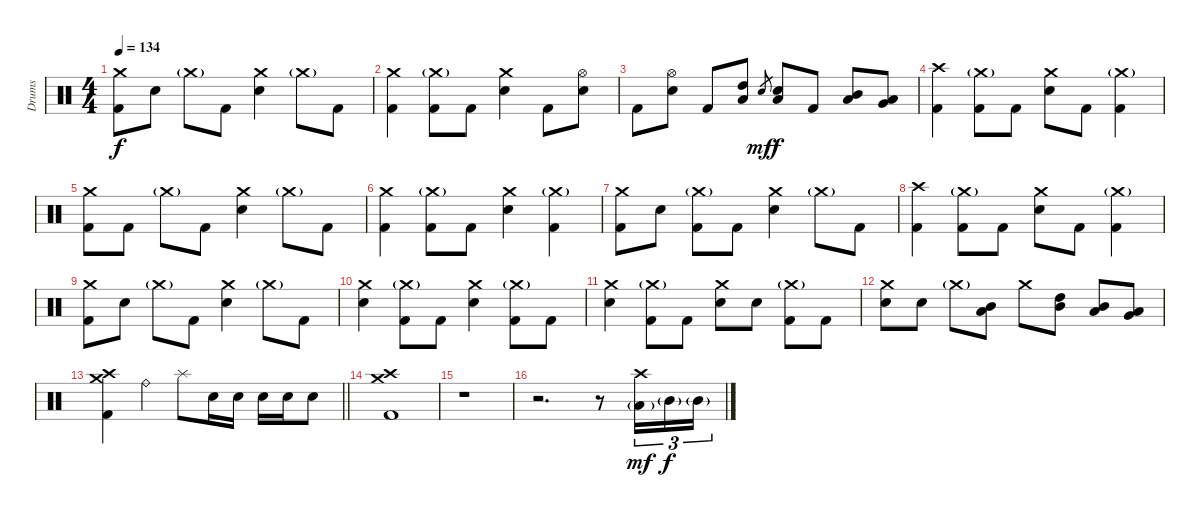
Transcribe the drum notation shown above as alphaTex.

\track ("Drums" "Drums") {instrument percussion}
\staff {score}
\articulation defaults
\ts (4 4)
\tempo 134
\clef neutral
\ks c
("Crash medium (hit)" "Kick (hit) 2").8{dy f} "Snare (hit) 2".8 "Crash medium (hit)"{g}.8 "Kick (hit) 2".8 ("Crash medium (hit)" "Snare (hit) 2").4 "Crash medium (hit)"{g}.8 "Kick (hit) 2".8 |
("Crash medium (hit)" "Kick (hit) 2").4 ("Crash medium (hit)"{g} "Kick (hit) 2").8 "Kick (hit) 2".8 ("Crash medium (hit)" "Snare (hit) 2").4 "Kick (hit) 2".8 ("Hi-Hat (open)" "Snare (hit) 2").8 |
"Kick (hit) 2".8 ("Hi-Hat (open)" "Snare (hit) 2").8 "Kick (hit) 2".8 ("High Tom (hit)" "Low Tom (hit)").8 "Snare (hit)".8{gr dy mf} ("Low Tom (hit)" "Snare (hit) 2").8{dy f} "Kick (hit) 2".8 ("Mid Tom (hit)" "Low Tom (hit)").8 ("Low Tom (hit)" "Very Low Tom (hit)").8 |
("Crash high (hit)" "Kick (hit) 2").4 ("Crash medium (hit)"{g} "Kick (hit) 2").8 "Kick (hit) 2".8 ("Crash medium (hit)" "Snare (hit) 2").8 "Kick (hit) 2".8 ("Crash medium (hit)"{g} "Kick (hit) 2").4 |
("Crash medium (hit)" "Kick (hit) 2").8 "Kick (hit) 2".8 "Crash medium (hit)"{g}.8 "Kick (hit) 2".8 ("Crash medium (hit)" "Snare (hit) 2").4 "Crash medium (hit)"{g}.8 "Kick (hit) 2".8 |
("Crash medium (hit)" "Kick (hit) 2").4 ("Crash medium (hit)"{g} "Kick (hit) 2").8 "Kick (hit) 2".8 ("Crash medium (hit)" "Snare (hit) 2").4 ("Crash medium (hit)"{g} "Kick (hit) 2").4 |
("Crash medium (hit)" "Kick (hit) 2").8 "Snare (hit) 2".8 ("Crash medium (hit)"{g} "Kick (hit) 2").8 "Kick (hit) 2".8 ("Crash medium (hit)" "Snare (hit) 2").4 "Crash medium (hit)"{g}.8 "Kick (hit) 2".8 |
("Crash high (hit)" "Kick (hit) 2").4 ("Crash medium (hit)"{g} "Kick (hit) 2").8 "Kick (hit) 2".8 ("Crash medium (hit)" "Snare (hit) 2").8 "Kick (hit) 2".8 ("Crash medium (hit)"{g} "Kick (hit) 2").4 |
("Crash medium (hit)" "Kick (hit) 2").8 "Snare (hit) 2".8 "Crash medium (hit)"{g}.8 "Kick (hit) 2".8 ("Crash medium (hit)" "Snare (hit) 2").4 "Crash medium (hit)"{g}.8 "Kick (hit) 2".8 |
("Crash medium (hit)" "Snare (hit) 2").4 ("Crash medium (hit)"{g} "Kick (hit) 2").8 "Kick (hit) 2".8 ("Crash medium (hit)" "Snare (hit) 2").4 ("Crash medium (hit)"{g} "Kick (hit) 2").8 "Kick (hit) 2".8 |
("Crash medium (hit)" "Snare (hit) 2").4 ("Crash medium (hit)"{g} "Kick (hit) 2").8 "Kick (hit) 2".8 ("Crash medium (hit)" "Snare (hit) 2").8 "Snare (hit) 2".8 ("Crash medium (hit)"{g} "Kick (hit) 2").8 "Kick (hit) 2".8 |
("Crash medium (hit)" "Snare (hit) 2").8 "Snare (hit) 2".8 "Crash medium (hit)"{g}.8 ("Mid Tom (hit)" "Low Tom (hit)").8 "Crash medium (hit)".8 ("High Tom (hit)" "Mid Tom (hit)").8 ("Mid Tom (hit)" "Low Tom (hit)").8 ("Low Tom (hit)" "Very Low Tom (hit)").8 |
\barLineRight lightlight
("Crash high (hit)" "Crash medium (hit)" "Kick (hit) 2").4 "Ride (bell)".4 "Splash (hit)".8 "Snare (hit) 2".16 "Snare (hit) 2".16 "Snare (hit) 2".16 "Snare (hit) 2".16 "Snare (hit) 2".8 |
("Crash high (hit)" "Crash medium (hit)" "Kick (hit) 2").1 |
r.1 |
r.2{d} r.8 ("Crash high (hit)" "Low Tom (hit)"{g}).16{tu (3 2) dy mf} "Mid Tom (hit)"{g}.16{tu (3 2) dy f} "Mid Tom (hit)"{g}.16{tu (3 2)}
